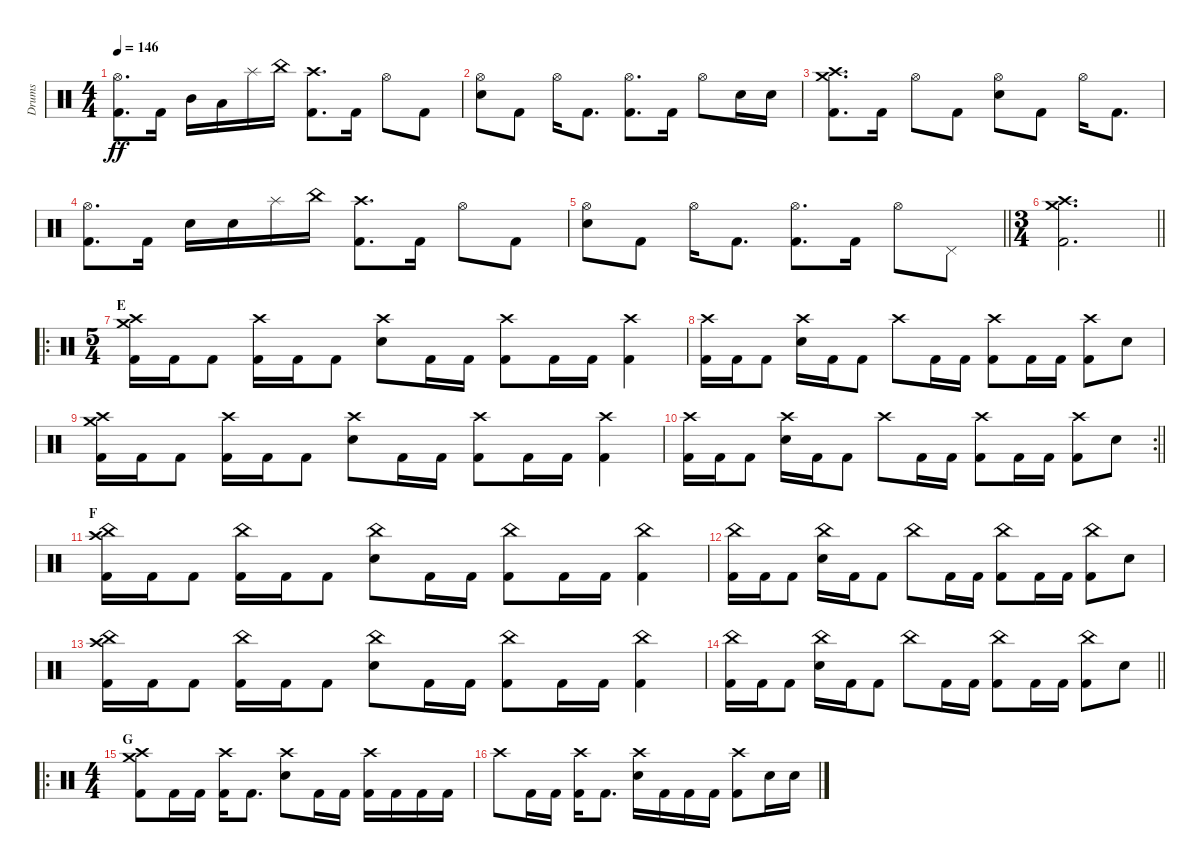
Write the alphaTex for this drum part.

\track ("Drums" "Drums") {instrument percussion}
\staff {score}
\articulation defaults
\ts (4 4)
\tempo 146
\clef neutral
\ks c
("Hi-Hat (open)" "Kick (hit) 2").8{d dy ff} "Kick (hit) 2".16 "Mid Tom (hit)".16 "Low Tom (hit)".16 "Splash (hit)".16 "China (hit)".16 ("Crash high (hit)" "Kick (hit) 2").8{d} "Kick (hit) 2".16 "Hi-Hat (open)".8 "Kick (hit) 2".8 |
("Hi-Hat (open)" "Electric Snare (hit)").8 "Kick (hit) 2".8 "Hi-Hat (open)".16 "Kick (hit) 2".8{d} ("Hi-Hat (open)" "Kick (hit) 2").8{d} "Kick (hit) 2".16 "Hi-Hat (open)".8 "Electric Snare (hit)".16 "Electric Snare (hit)".16 |
("Crash medium (hit)" "Crash high (hit)" "Kick (hit) 2").8{d} "Kick (hit) 2".16 "Hi-Hat (open)".8 "Kick (hit) 2".8 ("Hi-Hat (open)" "Electric Snare (hit)").8 "Kick (hit) 2".8 "Hi-Hat (open)".16 "Kick (hit) 2".8{d} |
("Hi-Hat (open)" "Kick (hit) 2").8{d} "Kick (hit) 2".16 "Electric Snare (hit)".16 "Electric Snare (hit)".16 "Splash (hit)".16 "China (hit)".16 ("Crash high (hit)" "Kick (hit) 2").8{d} "Kick (hit) 2".16 "Hi-Hat (open)".8 "Kick (hit) 2".8 |
\barLineRight lightlight
("Hi-Hat (open)" "Electric Snare (hit)").8 "Kick (hit) 2".8 "Hi-Hat (open)".16 "Kick (hit) 2".8{d} ("Hi-Hat (open)" "Kick (hit) 2").8{d} "Kick (hit) 2".16 "Hi-Hat (open)".8 "Pedal Hi-Hat (hit)".8 |
\ts (3 4)
\section ("" "")
\barLineRight lightlight
("Crash medium (hit)" "Crash high (hit)" "Kick (hit) 2").2{d} |
\ro
\ts (5 4)
\section ("" "E")
("Crash medium (hit)" "Crash high (hit)" "Kick (hit) 2").16 "Kick (hit) 2".16 "Kick (hit) 2".8 ("Crash high (hit)" "Kick (hit) 2").16 "Kick (hit) 2".16 "Kick (hit) 2".8 ("Crash high (hit)" "Electric Snare (hit)").8 "Kick (hit) 2".16 "Kick (hit) 2".16 ("Crash high (hit)" "Kick (hit) 2").8 "Kick (hit) 2".16 "Kick (hit) 2".16 ("Crash high (hit)" "Kick (hit) 2").4 |
("Crash high (hit)" "Kick (hit) 2").16 "Kick (hit) 2".16 "Kick (hit) 2".8 ("Crash high (hit)" "Electric Snare (hit)").16 "Kick (hit) 2".16 "Kick (hit) 2".8 "Crash high (hit)".8 "Kick (hit) 2".16 "Kick (hit) 2".16 ("Crash high (hit)" "Kick (hit) 2").8 "Kick (hit) 2".16 "Kick (hit) 2".16 ("Crash high (hit)" "Kick (hit) 2").8 "Electric Snare (hit)".8 |
("Crash medium (hit)" "Crash high (hit)" "Kick (hit) 2").16 "Kick (hit) 2".16 "Kick (hit) 2".8 ("Crash high (hit)" "Kick (hit) 2").16 "Kick (hit) 2".16 "Kick (hit) 2".8 ("Crash high (hit)" "Electric Snare (hit)").8 "Kick (hit) 2".16 "Kick (hit) 2".16 ("Crash high (hit)" "Kick (hit) 2").8 "Kick (hit) 2".16 "Kick (hit) 2".16 ("Crash high (hit)" "Kick (hit) 2").4 |
\rc 2
\barLineRight lightlight
("Crash high (hit)" "Kick (hit) 2").16 "Kick (hit) 2".16 "Kick (hit) 2".8 ("Crash high (hit)" "Electric Snare (hit)").16 "Kick (hit) 2".16 "Kick (hit) 2".8 "Crash high (hit)".8 "Kick (hit) 2".16 "Kick (hit) 2".16 ("Crash high (hit)" "Kick (hit) 2").8 "Kick (hit) 2".16 "Kick (hit) 2".16 ("Crash high (hit)" "Kick (hit) 2").8 "Electric Snare (hit)".8 |
\section ("" "F")
("Crash high (hit)" "China (hit)" "Kick (hit) 2").16 "Kick (hit) 2".16 "Kick (hit) 2".8 ("China (hit)" "Kick (hit) 2").16 "Kick (hit) 2".16 "Kick (hit) 2".8 ("China (hit)" "Electric Snare (hit)").8 "Kick (hit) 2".16 "Kick (hit) 2".16 ("China (hit)" "Kick (hit) 2").8 "Kick (hit) 2".16 "Kick (hit) 2".16 ("China (hit)" "Kick (hit) 2").4 |
("China (hit)" "Kick (hit) 2").16 "Kick (hit) 2".16 "Kick (hit) 2".8 ("China (hit)" "Electric Snare (hit)").16 "Kick (hit) 2".16 "Kick (hit) 2".8 "China (hit)".8 "Kick (hit) 2".16 "Kick (hit) 2".16 ("China (hit)" "Kick (hit) 2").8 "Kick (hit) 2".16 "Kick (hit) 2".16 ("China (hit)" "Kick (hit) 2").8 "Electric Snare (hit)".8 |
("Crash high (hit)" "China (hit)" "Kick (hit) 2").16 "Kick (hit) 2".16 "Kick (hit) 2".8 ("China (hit)" "Kick (hit) 2").16 "Kick (hit) 2".16 "Kick (hit) 2".8 ("China (hit)" "Electric Snare (hit)").8 "Kick (hit) 2".16 "Kick (hit) 2".16 ("China (hit)" "Kick (hit) 2").8 "Kick (hit) 2".16 "Kick (hit) 2".16 ("China (hit)" "Kick (hit) 2").4 |
\barLineRight lightlight
("China (hit)" "Kick (hit) 2").16 "Kick (hit) 2".16 "Kick (hit) 2".8 ("China (hit)" "Electric Snare (hit)").16 "Kick (hit) 2".16 "Kick (hit) 2".8 "China (hit)".8 "Kick (hit) 2".16 "Kick (hit) 2".16 ("China (hit)" "Kick (hit) 2").8 "Kick (hit) 2".16 "Kick (hit) 2".16 ("China (hit)" "Kick (hit) 2").8 "Electric Snare (hit)".8 |
\ro
\ts (4 4)
\section ("" "G")
("Crash medium (hit)" "Crash high (hit)" "Kick (hit) 2").8 "Kick (hit) 2".16 "Kick (hit) 2".16 ("Crash high (hit)" "Kick (hit) 2").16 "Kick (hit) 2".8{d} ("Crash high (hit)" "Electric Snare (hit)").8 "Kick (hit) 2".16 "Kick (hit) 2".16 ("Crash high (hit)" "Kick (hit) 2").16 "Kick (hit) 2".16 "Kick (hit) 2".16 "Kick (hit) 2".16 |
"Crash high (hit)".8 "Kick (hit) 2".16 "Kick (hit) 2".16 ("Crash high (hit)" "Kick (hit) 2").16 "Kick (hit) 2".8{d} ("Crash high (hit)" "Electric Snare (hit)").16 "Kick (hit) 2".16 "Kick (hit) 2".16 "Kick (hit) 2".16 ("Crash high (hit)" "Kick (hit) 2").8 "Electric Snare (hit)".16 "Electric Snare (hit)".16
